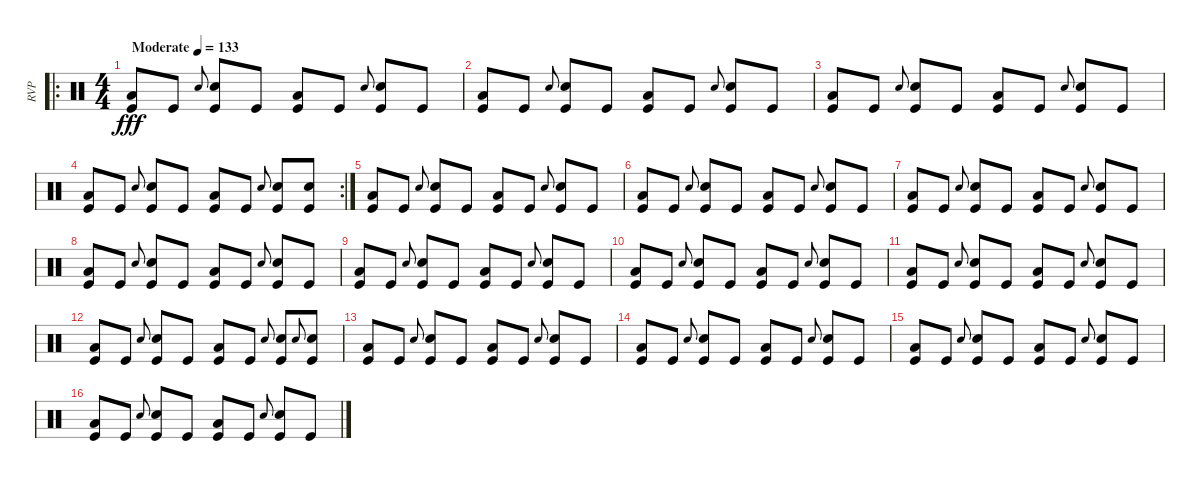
\track ("RVP" "RVP") {instrument percussion}
\staff {score}
\articulation defaults
\ro
\ts (4 4)
\tempo (133 "Moderate")
\clef neutral
\ks c
("Low Floor Tom (hit)" "Kick (hit)").8{txt "" dy fff} "Kick (hit)".8{txt ""} "Snare (hit) 2".8{gr onbeat} ("Snare (hit) 2" "Kick (hit)").8{txt ""} "Kick (hit)".8{txt ""} ("Low Floor Tom (hit)" "Kick (hit)").8{txt ""} "Kick (hit)".8{txt ""} "Snare (hit) 2".8{gr onbeat} ("Snare (hit) 2" "Kick (hit)").8{txt ""} "Kick (hit)".8{txt ""} |
("Low Floor Tom (hit)" "Kick (hit)").8{txt ""} "Kick (hit)".8{txt ""} "Snare (hit) 2".8{gr onbeat} ("Snare (hit) 2" "Kick (hit)").8{txt ""} "Kick (hit)".8{txt ""} ("Low Floor Tom (hit)" "Kick (hit)").8{txt ""} "Kick (hit)".8{txt ""} "Snare (hit) 2".8{gr onbeat} ("Snare (hit) 2" "Kick (hit)").8{txt ""} "Kick (hit)".8{txt ""} |
("Low Floor Tom (hit)" "Kick (hit)").8{txt ""} "Kick (hit)".8{txt ""} "Snare (hit) 2".8{gr onbeat} ("Snare (hit) 2" "Kick (hit)").8{txt ""} "Kick (hit)".8{txt ""} ("Low Floor Tom (hit)" "Kick (hit)").8{txt ""} "Kick (hit)".8{txt ""} "Snare (hit) 2".8{gr onbeat} ("Snare (hit) 2" "Kick (hit)").8{txt ""} "Kick (hit)".8{txt ""} |
\rc 2
("Low Floor Tom (hit)" "Kick (hit)").8{txt ""} "Kick (hit)".8{txt ""} "Snare (hit) 2".8{gr onbeat} ("Snare (hit) 2" "Kick (hit)").8{txt ""} "Kick (hit)".8{txt ""} ("Low Floor Tom (hit)" "Kick (hit)").8{txt ""} "Kick (hit)".8{txt ""} "Snare (hit) 2".8{gr onbeat} ("Snare (hit) 2" "Kick (hit)").8{txt ""} ("Snare (hit) 2" "Kick (hit)").8{txt ""} |
("Low Floor Tom (hit)" "Kick (hit)").8{txt ""} "Kick (hit)".8{txt ""} "Snare (hit) 2".8{gr onbeat} ("Snare (hit) 2" "Kick (hit)").8{txt ""} "Kick (hit)".8{txt ""} ("Low Floor Tom (hit)" "Kick (hit)").8{txt ""} "Kick (hit)".8{txt ""} "Snare (hit) 2".8{gr onbeat} ("Snare (hit) 2" "Kick (hit)").8{txt ""} "Kick (hit)".8{txt ""} |
("Low Floor Tom (hit)" "Kick (hit)").8{txt ""} "Kick (hit)".8{txt ""} "Snare (hit) 2".8{gr onbeat} ("Snare (hit) 2" "Kick (hit)").8{txt ""} "Kick (hit)".8{txt ""} ("Low Floor Tom (hit)" "Kick (hit)").8{txt ""} "Kick (hit)".8{txt ""} "Snare (hit) 2".8{gr onbeat} ("Snare (hit) 2" "Kick (hit)").8{txt ""} "Kick (hit)".8{txt ""} |
("Low Floor Tom (hit)" "Kick (hit)").8{txt ""} "Kick (hit)".8{txt ""} "Snare (hit) 2".8{gr onbeat} ("Snare (hit) 2" "Kick (hit)").8{txt ""} "Kick (hit)".8{txt ""} ("Low Floor Tom (hit)" "Kick (hit)").8{txt ""} "Kick (hit)".8{txt ""} "Snare (hit) 2".8{gr onbeat} ("Snare (hit) 2" "Kick (hit)").8{txt ""} "Kick (hit)".8{txt ""} |
("Low Floor Tom (hit)" "Kick (hit)").8{txt ""} "Kick (hit)".8{txt ""} "Snare (hit) 2".8{gr onbeat} ("Snare (hit) 2" "Kick (hit)").8{txt ""} "Kick (hit)".8{txt ""} ("Low Floor Tom (hit)" "Kick (hit)").8{txt ""} "Kick (hit)".8{txt ""} "Snare (hit) 2".8{gr onbeat} ("Snare (hit) 2" "Kick (hit)").8{txt ""} "Kick (hit)".8{txt ""} |
("Low Floor Tom (hit)" "Kick (hit)").8{txt ""} "Kick (hit)".8{txt ""} "Snare (hit) 2".8{gr onbeat} ("Snare (hit) 2" "Kick (hit)").8{txt ""} "Kick (hit)".8{txt ""} ("Low Floor Tom (hit)" "Kick (hit)").8{txt ""} "Kick (hit)".8{txt ""} "Snare (hit) 2".8{gr onbeat} ("Snare (hit) 2" "Kick (hit)").8{txt ""} "Kick (hit)".8{txt ""} |
("Low Floor Tom (hit)" "Kick (hit)").8{txt ""} "Kick (hit)".8{txt ""} "Snare (hit) 2".8{gr onbeat} ("Snare (hit) 2" "Kick (hit)").8{txt ""} "Kick (hit)".8{txt ""} ("Low Floor Tom (hit)" "Kick (hit)").8{txt ""} "Kick (hit)".8{txt ""} "Snare (hit) 2".8{gr onbeat} ("Snare (hit) 2" "Kick (hit)").8{txt ""} "Kick (hit)".8{txt ""} |
("Low Floor Tom (hit)" "Kick (hit)").8{txt ""} "Kick (hit)".8{txt ""} "Snare (hit) 2".8{gr onbeat} ("Snare (hit) 2" "Kick (hit)").8{txt ""} "Kick (hit)".8{txt ""} ("Low Floor Tom (hit)" "Kick (hit)").8{txt ""} "Kick (hit)".8{txt ""} "Snare (hit) 2".8{gr onbeat} ("Snare (hit) 2" "Kick (hit)").8{txt ""} "Kick (hit)".8{txt ""} |
("Low Floor Tom (hit)" "Kick (hit)").8{txt ""} "Kick (hit)".8{txt ""} "Snare (hit) 2".8{gr onbeat} ("Snare (hit) 2" "Kick (hit)").8{txt ""} "Kick (hit)".8{txt ""} ("Low Floor Tom (hit)" "Kick (hit)").8{txt ""} "Kick (hit)".8{txt ""} "Snare (hit) 2".8{gr onbeat} ("Snare (hit) 2" "Kick (hit)").8{txt ""} "Snare (hit) 2".8{gr onbeat} ("Snare (hit) 2" "Kick (hit)").8{txt ""} |
("Low Floor Tom (hit)" "Kick (hit)").8{txt ""} "Kick (hit)".8{txt ""} "Snare (hit) 2".8{gr onbeat} ("Snare (hit) 2" "Kick (hit)").8{txt ""} "Kick (hit)".8{txt ""} ("Low Floor Tom (hit)" "Kick (hit)").8{txt ""} "Kick (hit)".8{txt ""} "Snare (hit) 2".8{gr onbeat} ("Snare (hit) 2" "Kick (hit)").8{txt ""} "Kick (hit)".8{txt ""} |
("Low Floor Tom (hit)" "Kick (hit)").8{txt ""} "Kick (hit)".8{txt ""} "Snare (hit) 2".8{gr onbeat} ("Snare (hit) 2" "Kick (hit)").8{txt ""} "Kick (hit)".8{txt ""} ("Low Floor Tom (hit)" "Kick (hit)").8{txt ""} "Kick (hit)".8{txt ""} "Snare (hit) 2".8{gr onbeat} ("Snare (hit) 2" "Kick (hit)").8{txt ""} "Kick (hit)".8{txt ""} |
("Low Floor Tom (hit)" "Kick (hit)").8{txt ""} "Kick (hit)".8{txt ""} "Snare (hit) 2".8{gr onbeat} ("Snare (hit) 2" "Kick (hit)").8{txt ""} "Kick (hit)".8{txt ""} ("Low Floor Tom (hit)" "Kick (hit)").8{txt ""} "Kick (hit)".8{txt ""} "Snare (hit) 2".8{gr onbeat} ("Snare (hit) 2" "Kick (hit)").8{txt ""} "Kick (hit)".8{txt ""} |
("Low Floor Tom (hit)" "Kick (hit)").8{txt ""} "Kick (hit)".8{txt ""} "Snare (hit) 2".8{gr onbeat} ("Snare (hit) 2" "Kick (hit)").8{txt ""} "Kick (hit)".8{txt ""} ("Low Floor Tom (hit)" "Kick (hit)").8{txt ""} "Kick (hit)".8{txt ""} "Snare (hit) 2".8{gr onbeat} ("Snare (hit) 2" "Kick (hit)").8{txt ""} "Kick (hit)".8{txt ""}
